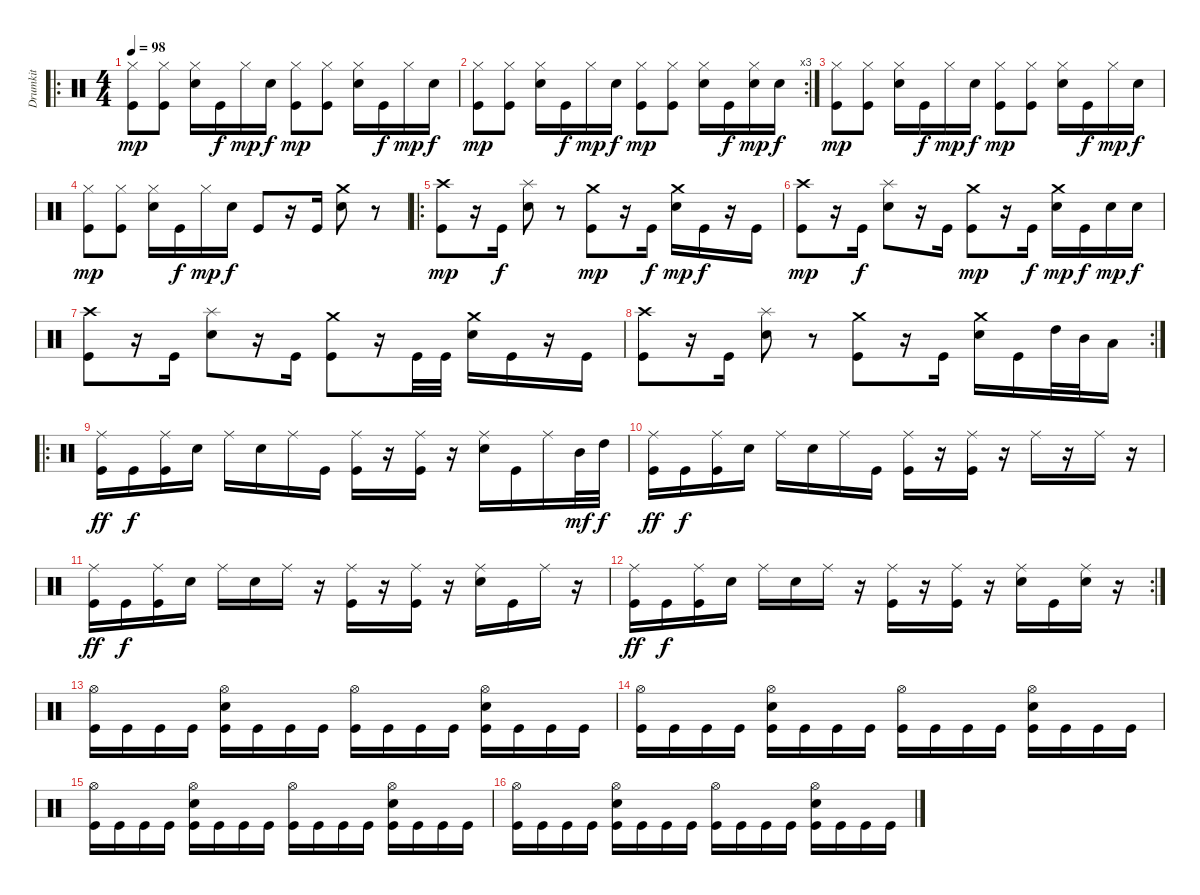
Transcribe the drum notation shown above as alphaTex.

\track ("Drumkit" "Drumkit") {instrument percussion}
\staff {score}
\articulation defaults
\ro
\ts (4 4)
\tempo 98
\clef neutral
\ks c
("Hi-Hat (closed)" "Kick (hit)").8{dy mp} ("Hi-Hat (closed)" "Kick (hit)").8 ("Hi-Hat (closed)" "Snare (hit) 2").16 "Kick (hit)".16{dy f} "Hi-Hat (closed)".16{dy mp} "Snare (hit) 2".16{dy f} ("Hi-Hat (closed)" "Kick (hit)").8{dy mp} ("Hi-Hat (closed)" "Kick (hit)").8 ("Hi-Hat (closed)" "Snare (hit) 2").16 "Kick (hit)".16{dy f} "Hi-Hat (closed)".16{dy mp} "Snare (hit) 2".16{dy f} |
\rc 3
("Hi-Hat (closed)" "Kick (hit)").8{dy mp} ("Hi-Hat (closed)" "Kick (hit)").8 ("Hi-Hat (closed)" "Snare (hit) 2").16 "Kick (hit)".16{dy f} "Hi-Hat (closed)".16{dy mp} "Snare (hit) 2".16{dy f} ("Hi-Hat (closed)" "Kick (hit)").8{dy mp} ("Hi-Hat (closed)" "Kick (hit)").8 ("Hi-Hat (closed)" "Snare (hit) 2").16 "Kick (hit)".16{dy f} ("Hi-Hat (closed)" "Snare (hit) 2").16{dy mp} "Snare (hit) 2".16{dy f} |
("Hi-Hat (closed)" "Kick (hit)").8{dy mp} ("Hi-Hat (closed)" "Kick (hit)").8 ("Hi-Hat (closed)" "Snare (hit) 2").16 "Kick (hit)".16{dy f} "Hi-Hat (closed)".16{dy mp} "Snare (hit) 2".16{dy f} ("Hi-Hat (closed)" "Kick (hit)").8{dy mp} ("Hi-Hat (closed)" "Kick (hit)").8 ("Hi-Hat (closed)" "Snare (hit) 2").16 "Kick (hit)".16{dy f} "Hi-Hat (closed)".16{dy mp} "Snare (hit) 2".16{dy f} |
("Hi-Hat (closed)" "Kick (hit)").8{dy mp} ("Hi-Hat (closed)" "Kick (hit)").8 ("Hi-Hat (closed)" "Snare (hit) 2").16 "Kick (hit)".16{dy f} "Hi-Hat (closed)".16{dy mp} "Snare (hit) 2".16{dy f} "Kick (hit)".8 r.16 "Kick (hit)".16 ("Crash medium (hit)" "Snare (hit) 2").8 r.8 |
\ro
("Crash high (hit)" "Kick (hit)").8{dy mp} r.16 "Kick (hit)".16{dy f} ("Splash (hit)" "Snare (hit) 2").8 r.8 ("Crash medium (hit)" "Kick (hit)").8{dy mp} r.16 "Kick (hit)".16{dy f} ("Crash medium (hit)" "Snare (hit) 2").16{dy mp} "Kick (hit)".16{dy f} r.16 "Kick (hit)".16 |
("Crash high (hit)" "Kick (hit)").8{dy mp} r.16 "Kick (hit)".16{dy f} ("Splash (hit)" "Snare (hit) 2").8 r.16 "Kick (hit)".16 ("Crash medium (hit)" "Kick (hit)").8{dy mp} r.16 "Kick (hit)".16{dy f} ("Crash medium (hit)" "Snare (hit) 2").16{dy mp} "Kick (hit)".16{dy f} "Snare (hit) 2".16{dy mp} "Snare (hit) 2".16{dy f} |
("Crash high (hit)" "Kick (hit)").8 r.16 "Kick (hit)".16 ("Splash (hit)" "Snare (hit) 2").8 r.16 "Kick (hit)".16 ("Crash medium (hit)" "Kick (hit)").8 r.16 "Kick (hit)".32 "Kick (hit)".32 ("Crash medium (hit)" "Snare (hit) 2").16 "Kick (hit)".16 r.16 "Kick (hit)".16 |
\rc 2
("Crash high (hit)" "Kick (hit)").8 r.16 "Kick (hit)".16 ("Splash (hit)" "Snare (hit) 2").8 r.8 ("Crash medium (hit)" "Kick (hit)").8 r.16 "Kick (hit)".16 ("Crash medium (hit)" "Snare (hit) 2").16 "Kick (hit)".16 "High Tom (hit)".32 "Mid Tom (hit)".32 "Low Tom (hit)".16 |
\ro
("Ride (middle)" "Kick (hit)").16{dy ff} "Kick (hit)".16{dy f} ("Ride (middle)" "Kick (hit)").16 "Snare (hit) 2".16 "Ride (middle)".16 "Snare (hit) 2".16 "Ride (middle)".16 "Kick (hit)".16 ("Ride (middle)" "Kick (hit)").16 r.16 ("Ride (middle)" "Kick (hit)").16 r.16 ("Ride (middle)" "Snare (hit) 2").16 "Kick (hit)".16 "Ride (middle)".16 "Mid Tom (hit)".32{dy mf} "High Tom (hit)".32{dy f} |
("Ride (middle)" "Kick (hit)").16{dy ff} "Kick (hit)".16{dy f} ("Ride (middle)" "Kick (hit)").16 "Snare (hit) 2".16 "Ride (middle)".16 "Snare (hit) 2".16 "Ride (middle)".16 "Kick (hit)".16 ("Ride (middle)" "Kick (hit)").16 r.16 ("Ride (middle)" "Kick (hit)").16 r.16 "Ride (middle)".16 r.16 "Ride (middle)".16 r.16 |
("Ride (middle)" "Kick (hit)").16{dy ff} "Kick (hit)".16{dy f} ("Ride (middle)" "Kick (hit)").16 "Snare (hit) 2".16 "Ride (middle)".16 "Snare (hit) 2".16 "Ride (middle)".16 r.16 ("Ride (middle)" "Kick (hit)").16 r.16 ("Ride (middle)" "Kick (hit)").16 r.16 ("Ride (middle)" "Snare (hit) 2").16 "Kick (hit)".16 "Ride (middle)".16 r.16 |
\rc 2
("Ride (middle)" "Kick (hit)").16{dy ff} "Kick (hit)".16{dy f} ("Ride (middle)" "Kick (hit)").16 "Snare (hit) 2".16 "Ride (middle)".16 "Snare (hit) 2".16 "Ride (middle)".16 r.16 ("Ride (middle)" "Kick (hit)").16 r.16 ("Ride (middle)" "Kick (hit)").16 r.16 ("Ride (middle)" "Snare (hit) 2").16 "Kick (hit)".16 ("Ride (middle)" "Snare (hit) 2").16 r.16 |
("Hi-Hat (open)" "Kick (hit)").16 "Kick (hit)".16 "Kick (hit)".16 "Kick (hit)".16 ("Hi-Hat (open)" "Snare (hit) 2" "Kick (hit)").16 "Kick (hit)".16 "Kick (hit)".16 "Kick (hit)".16 ("Hi-Hat (open)" "Kick (hit)").16 "Kick (hit)".16 "Kick (hit)".16 "Kick (hit)".16 ("Hi-Hat (open)" "Snare (hit) 2" "Kick (hit)").16 "Kick (hit)".16 "Kick (hit)".16 "Kick (hit)".16 |
("Hi-Hat (open)" "Kick (hit)").16 "Kick (hit)".16 "Kick (hit)".16 "Kick (hit)".16 ("Hi-Hat (open)" "Snare (hit) 2" "Kick (hit)").16 "Kick (hit)".16 "Kick (hit)".16 "Kick (hit)".16 ("Hi-Hat (open)" "Kick (hit)").16 "Kick (hit)".16 "Kick (hit)".16 "Kick (hit)".16 ("Hi-Hat (open)" "Snare (hit) 2" "Kick (hit)").16 "Kick (hit)".16 "Kick (hit)".16 "Kick (hit)".16 |
("Hi-Hat (open)" "Kick (hit)").16 "Kick (hit)".16 "Kick (hit)".16 "Kick (hit)".16 ("Hi-Hat (open)" "Snare (hit) 2" "Kick (hit)").16 "Kick (hit)".16 "Kick (hit)".16 "Kick (hit)".16 ("Hi-Hat (open)" "Kick (hit)").16 "Kick (hit)".16 "Kick (hit)".16 "Kick (hit)".16 ("Hi-Hat (open)" "Snare (hit) 2" "Kick (hit)").16 "Kick (hit)".16 "Kick (hit)".16 "Kick (hit)".16 |
("Hi-Hat (open)" "Kick (hit)").16 "Kick (hit)".16 "Kick (hit)".16 "Kick (hit)".16 ("Hi-Hat (open)" "Snare (hit) 2" "Kick (hit)").16 "Kick (hit)".16 "Kick (hit)".16 "Kick (hit)".16 ("Hi-Hat (open)" "Kick (hit)").16 "Kick (hit)".16 "Kick (hit)".16 "Kick (hit)".16 ("Hi-Hat (open)" "Snare (hit) 2" "Kick (hit)").16 "Kick (hit)".16 "Kick (hit)".16 "Kick (hit)".16
